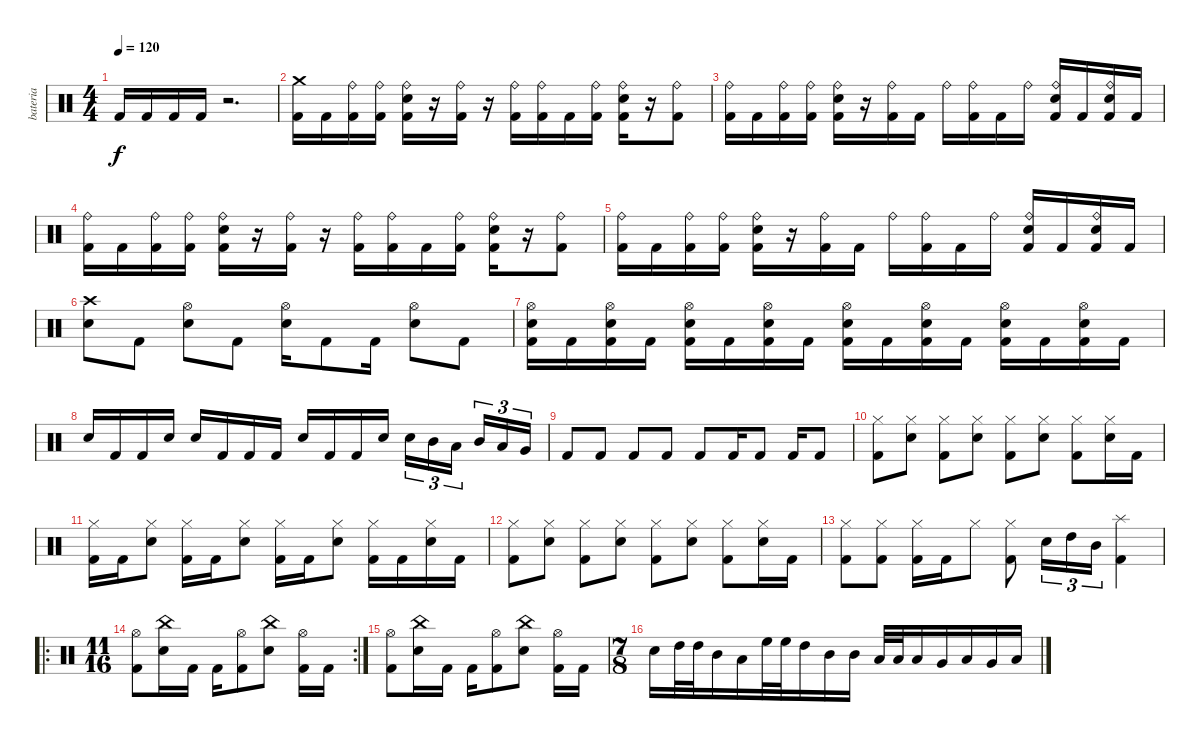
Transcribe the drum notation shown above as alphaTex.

\track ("bateria" "bateria") {instrument percussion}
\staff {score}
\articulation defaults
\ts (4 4)
\tempo 120
\clef neutral
\ks c "Kick (hit) 2".16{dy f} "Kick (hit) 2".16 "Kick (hit) 2".16 "Kick (hit) 2".16
r.2{d} |
("Crash medium (hit)" "Kick (hit) 2").16 "Kick (hit) 2".16 ("Ride (bell)" "Kick (hit) 2").16 ("Ride (bell)" "Kick (hit) 2").16 ("Ride (bell)" "Electric Snare (hit)" "Kick (hit) 2").16 r.16 ("Ride (bell)" "Kick (hit) 2").16 r.16 ("Ride (bell)" "Kick (hit) 2").16 ("Ride (bell)" "Kick (hit) 2").16 "Kick (hit) 2".16 ("Ride (bell)" "Kick (hit) 2").16 ("Ride (bell)" "Electric Snare (hit)" "Kick (hit) 2").16 r.16 ("Ride (bell)" "Kick (hit) 2").8 |
("Ride (bell)" "Kick (hit) 2").16 "Kick (hit) 2".16 ("Ride (bell)" "Kick (hit) 2").16 ("Ride (bell)" "Kick (hit) 2").16 ("Ride (bell)" "Electric Snare (hit)" "Kick (hit) 2").16 r.16 ("Ride (bell)" "Kick (hit) 2").16 "Kick (hit) 2".16 "Ride (bell)".16 ("Ride (bell)" "Kick (hit) 2").16 "Kick (hit) 2".16 "Ride (bell)".16 ("Ride (bell)" "Electric Snare (hit)" "Kick (hit) 2").16 "Kick (hit) 2".16 ("Ride (bell)" "Electric Snare (hit)" "Kick (hit) 2").16 "Kick (hit) 2".16 |
("Ride (bell)" "Kick (hit) 2").16 "Kick (hit) 2".16 ("Ride (bell)" "Kick (hit) 2").16 ("Ride (bell)" "Kick (hit) 2").16 ("Ride (bell)" "Electric Snare (hit)" "Kick (hit) 2").16 r.16 ("Ride (bell)" "Kick (hit) 2").16 r.16 ("Ride (bell)" "Kick (hit) 2").16 ("Ride (bell)" "Kick (hit) 2").16 "Kick (hit) 2".16 ("Ride (bell)" "Kick (hit) 2").16 ("Ride (bell)" "Electric Snare (hit)" "Kick (hit) 2").16 r.16 ("Ride (bell)" "Kick (hit) 2").8 |
("Ride (bell)" "Kick (hit) 2").16 "Kick (hit) 2".16 ("Ride (bell)" "Kick (hit) 2").16 ("Ride (bell)" "Kick (hit) 2").16 ("Ride (bell)" "Electric Snare (hit)" "Kick (hit) 2").16 r.16 ("Ride (bell)" "Kick (hit) 2").16 "Kick (hit) 2".16 "Ride (bell)".16 ("Ride (bell)" "Kick (hit) 2").16 "Kick (hit) 2".16 "Ride (bell)".16 ("Ride (bell)" "Electric Snare (hit)" "Kick (hit) 2").16 "Kick (hit) 2".16 ("Ride (bell)" "Electric Snare (hit)" "Kick (hit) 2").16 "Kick (hit) 2".16 |
("Crash high (hit)" "Electric Snare (hit)").8 "Kick (hit) 2".8 ("Hi-Hat (open)" "Electric Snare (hit)").8 "Kick (hit) 2".8 ("Hi-Hat (open)" "Electric Snare (hit)").16 "Kick (hit) 2".8 "Kick (hit) 2".16 ("Hi-Hat (open)" "Electric Snare (hit)").8 "Kick (hit) 2".8 |
("Hi-Hat (open)" "Electric Snare (hit)" "Kick (hit) 2").16 "Kick (hit) 2".16 ("Hi-Hat (open)" "Electric Snare (hit)" "Kick (hit) 2").16 "Kick (hit) 2".16 ("Hi-Hat (open)" "Electric Snare (hit)" "Kick (hit) 2").16 "Kick (hit) 2".16 ("Hi-Hat (open)" "Electric Snare (hit)" "Kick (hit) 2").16 "Kick (hit) 2".16 ("Hi-Hat (open)" "Electric Snare (hit)" "Kick (hit) 2").16 "Kick (hit) 2".16 ("Hi-Hat (open)" "Electric Snare (hit)" "Kick (hit) 2").16 "Kick (hit) 2".16 ("Hi-Hat (open)" "Electric Snare (hit)" "Kick (hit) 2").16 "Kick (hit) 2".16 ("Hi-Hat (open)" "Electric Snare (hit)" "Kick (hit) 2").16 "Kick (hit) 2".16 |
"Electric Snare (hit)".16 "Kick (hit) 2".16 "Kick (hit) 2".16 "Electric Snare (hit)".16 "Electric Snare (hit)".16 "Kick (hit) 2".16 "Kick (hit) 2".16 "Kick (hit) 2".16 "Electric Snare (hit)".16 "Kick (hit) 2".16 "Kick (hit) 2".16 "Electric Snare (hit)".16 "Electric Snare (hit)".16{tu (3 2)} "Mid Tom (hit)".16{tu (3 2)} "Low Tom (hit)".16{tu (3 2)} "Mid Tom (hit)".16{tu (3 2)} "Low Tom (hit)".16{tu (3 2)} "Very Low Tom (hit)".16{tu (3 2)} |
"Kick (hit) 2".8 "Kick (hit) 2".8 "Kick (hit) 2".8 "Kick (hit) 2".8 "Kick (hit) 2".8 "Kick (hit) 2".16 "Kick (hit) 2".8 "Kick (hit) 2".16 "Kick (hit) 2".8 |
("Hi-Hat (closed)" "Kick (hit) 2").8 ("Hi-Hat (closed)" "Electric Snare (hit)").8 ("Hi-Hat (closed)" "Kick (hit) 2").8 ("Hi-Hat (closed)" "Electric Snare (hit)").8 ("Hi-Hat (closed)" "Kick (hit) 2").8 ("Hi-Hat (closed)" "Electric Snare (hit)").8 ("Hi-Hat (closed)" "Kick (hit) 2").8 ("Hi-Hat (closed)" "Electric Snare (hit)").16 "Kick (hit) 2".16 |
("Hi-Hat (closed)" "Kick (hit) 2").16 "Kick (hit) 2".16 ("Hi-Hat (closed)" "Electric Snare (hit)").8 ("Hi-Hat (closed)" "Kick (hit) 2").16 "Kick (hit) 2".16 ("Hi-Hat (closed)" "Electric Snare (hit)").8 ("Hi-Hat (closed)" "Kick (hit) 2").16 "Kick (hit) 2".16 ("Hi-Hat (closed)" "Electric Snare (hit)").8 ("Hi-Hat (closed)" "Kick (hit) 2").16 "Kick (hit) 2".16 ("Hi-Hat (closed)" "Electric Snare (hit)").16 "Kick (hit) 2".16 |
("Hi-Hat (closed)" "Kick (hit) 2").8 ("Hi-Hat (closed)" "Electric Snare (hit)").8 ("Hi-Hat (closed)" "Kick (hit) 2").8 ("Hi-Hat (closed)" "Electric Snare (hit)").8 ("Hi-Hat (closed)" "Kick (hit) 2").8 ("Hi-Hat (closed)" "Electric Snare (hit)").8 ("Hi-Hat (closed)" "Kick (hit) 2").8 ("Hi-Hat (closed)" "Electric Snare (hit)").16 "Kick (hit) 2".16 |
("Hi-Hat (closed)" "Kick (hit) 2").8 ("Hi-Hat (closed)" "Kick (hit) 2").8 ("Hi-Hat (closed)" "Kick (hit) 2").16 "Kick (hit) 2".16 "Hi-Hat (closed)".8 ("Hi-Hat (closed)" "Kick (hit) 2").8 "Electric Snare (hit)".16{tu (3 2)} "High Tom (hit)".16{tu (3 2)} "Mid Tom (hit)".16{tu (3 2)} ("Splash (hit)" "Kick (hit) 2").4 |
\ro
\rc 2
\ts (11 16)
("Hi-Hat (open)" "Kick (hit) 2").8 ("China (hit)" "Electric Snare (hit)").16 "Kick (hit) 2".16 "Kick (hit) 2".16 ("Hi-Hat (open)" "Kick (hit) 2").8 ("China (hit)" "Electric Snare (hit)").8 ("Hi-Hat (open)" "Kick (hit) 2").16 "Kick (hit) 2".16 |
("Hi-Hat (open)" "Kick (hit) 2").8 ("China (hit)" "Electric Snare (hit)").16 "Kick (hit) 2".16 "Kick (hit) 2".16 ("Hi-Hat (open)" "Kick (hit) 2").8 ("China (hit)" "Electric Snare (hit)").8 ("Hi-Hat (open)" "Kick (hit) 2").16 "Kick (hit) 2".16 |
\ts (7 8)
"Electric Snare (hit)".16 "High Tom (hit)".32 "High Tom (hit)".32 "Mid Tom (hit)".16 "Low Tom (hit)".16 "High Floor Tom (hit)".32 "High Floor Tom (hit)".32 "High Tom (hit)".16 "Mid Tom (hit)".16 "Mid Tom (hit)".16 "Low Tom (hit)".32 "Low Tom (hit)".32 "Low Tom (hit)".16 "Very Low Tom (hit)".16 "Low Tom (hit)".16 "Very Low Tom (hit)".16 "Low Floor Tom (hit)".16
